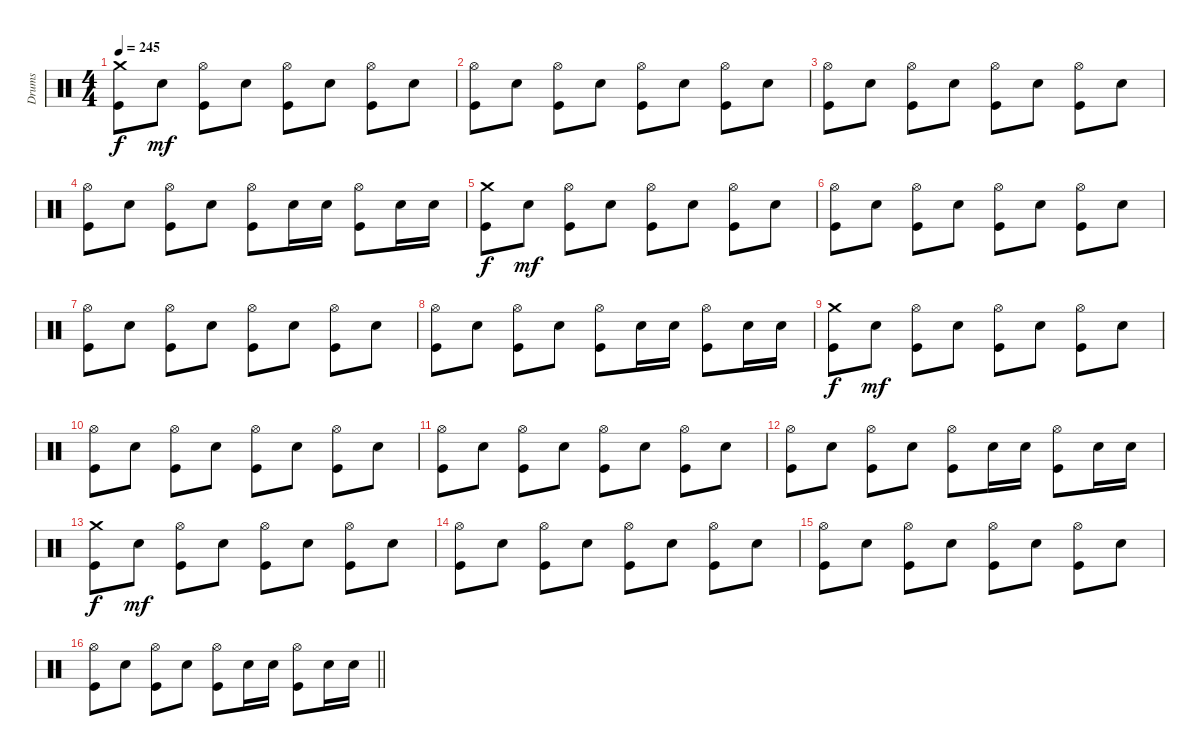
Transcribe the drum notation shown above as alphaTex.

\track ("Drums" "Drums") {instrument percussion}
\staff {score}
\articulation defaults
\ts (4 4)
\tempo 245
\clef neutral
\ks c
("Crash medium (hit)" "Kick (hit)").8{dy f} "Snare (hit) 2".8{dy mf} ("Hi-Hat (open)" "Kick (hit)").8 "Snare (hit) 2".8 ("Hi-Hat (open)" "Kick (hit)").8 "Snare (hit) 2".8 ("Hi-Hat (open)" "Kick (hit)").8 "Snare (hit) 2".8 |
("Hi-Hat (open)" "Kick (hit)").8 "Snare (hit) 2".8 ("Hi-Hat (open)" "Kick (hit)").8 "Snare (hit) 2".8 ("Hi-Hat (open)" "Kick (hit)").8 "Snare (hit) 2".8 ("Hi-Hat (open)" "Kick (hit)").8 "Snare (hit) 2".8 |
("Hi-Hat (open)" "Kick (hit)").8 "Snare (hit) 2".8 ("Hi-Hat (open)" "Kick (hit)").8 "Snare (hit) 2".8 ("Hi-Hat (open)" "Kick (hit)").8 "Snare (hit) 2".8 ("Hi-Hat (open)" "Kick (hit)").8 "Snare (hit) 2".8 |
("Hi-Hat (open)" "Kick (hit)").8 "Snare (hit) 2".8 ("Hi-Hat (open)" "Kick (hit)").8 "Snare (hit) 2".8 ("Hi-Hat (open)" "Kick (hit)").8 "Snare (hit) 2".16 "Snare (hit) 2".16 ("Hi-Hat (open)" "Kick (hit)").8 "Snare (hit) 2".16 "Snare (hit) 2".16 |
("Crash medium (hit)" "Kick (hit)").8{dy f} "Snare (hit) 2".8{dy mf} ("Hi-Hat (open)" "Kick (hit)").8 "Snare (hit) 2".8 ("Hi-Hat (open)" "Kick (hit)").8 "Snare (hit) 2".8 ("Hi-Hat (open)" "Kick (hit)").8 "Snare (hit) 2".8 |
("Hi-Hat (open)" "Kick (hit)").8 "Snare (hit) 2".8 ("Hi-Hat (open)" "Kick (hit)").8 "Snare (hit) 2".8 ("Hi-Hat (open)" "Kick (hit)").8 "Snare (hit) 2".8 ("Hi-Hat (open)" "Kick (hit)").8 "Snare (hit) 2".8 |
("Hi-Hat (open)" "Kick (hit)").8 "Snare (hit) 2".8 ("Hi-Hat (open)" "Kick (hit)").8 "Snare (hit) 2".8 ("Hi-Hat (open)" "Kick (hit)").8 "Snare (hit) 2".8 ("Hi-Hat (open)" "Kick (hit)").8 "Snare (hit) 2".8 |
("Hi-Hat (open)" "Kick (hit)").8 "Snare (hit) 2".8 ("Hi-Hat (open)" "Kick (hit)").8 "Snare (hit) 2".8 ("Hi-Hat (open)" "Kick (hit)").8 "Snare (hit) 2".16 "Snare (hit) 2".16 ("Hi-Hat (open)" "Kick (hit)").8 "Snare (hit) 2".16 "Snare (hit) 2".16 |
("Crash medium (hit)" "Kick (hit)").8{dy f} "Snare (hit) 2".8{dy mf} ("Hi-Hat (open)" "Kick (hit)").8 "Snare (hit) 2".8 ("Hi-Hat (open)" "Kick (hit)").8 "Snare (hit) 2".8 ("Hi-Hat (open)" "Kick (hit)").8 "Snare (hit) 2".8 |
("Hi-Hat (open)" "Kick (hit)").8 "Snare (hit) 2".8 ("Hi-Hat (open)" "Kick (hit)").8 "Snare (hit) 2".8 ("Hi-Hat (open)" "Kick (hit)").8 "Snare (hit) 2".8 ("Hi-Hat (open)" "Kick (hit)").8 "Snare (hit) 2".8 |
("Hi-Hat (open)" "Kick (hit)").8 "Snare (hit) 2".8 ("Hi-Hat (open)" "Kick (hit)").8 "Snare (hit) 2".8 ("Hi-Hat (open)" "Kick (hit)").8 "Snare (hit) 2".8 ("Hi-Hat (open)" "Kick (hit)").8 "Snare (hit) 2".8 |
("Hi-Hat (open)" "Kick (hit)").8 "Snare (hit) 2".8 ("Hi-Hat (open)" "Kick (hit)").8 "Snare (hit) 2".8 ("Hi-Hat (open)" "Kick (hit)").8 "Snare (hit) 2".16 "Snare (hit) 2".16 ("Hi-Hat (open)" "Kick (hit)").8 "Snare (hit) 2".16 "Snare (hit) 2".16 |
("Crash medium (hit)" "Kick (hit)").8{dy f} "Snare (hit) 2".8{dy mf} ("Hi-Hat (open)" "Kick (hit)").8 "Snare (hit) 2".8 ("Hi-Hat (open)" "Kick (hit)").8 "Snare (hit) 2".8 ("Hi-Hat (open)" "Kick (hit)").8 "Snare (hit) 2".8 |
("Hi-Hat (open)" "Kick (hit)").8 "Snare (hit) 2".8 ("Hi-Hat (open)" "Kick (hit)").8 "Snare (hit) 2".8 ("Hi-Hat (open)" "Kick (hit)").8 "Snare (hit) 2".8 ("Hi-Hat (open)" "Kick (hit)").8 "Snare (hit) 2".8 |
("Hi-Hat (open)" "Kick (hit)").8 "Snare (hit) 2".8 ("Hi-Hat (open)" "Kick (hit)").8 "Snare (hit) 2".8 ("Hi-Hat (open)" "Kick (hit)").8 "Snare (hit) 2".8 ("Hi-Hat (open)" "Kick (hit)").8 "Snare (hit) 2".8 |
\barLineRight lightlight
("Hi-Hat (open)" "Kick (hit)").8 "Snare (hit) 2".8 ("Hi-Hat (open)" "Kick (hit)").8 "Snare (hit) 2".8 ("Hi-Hat (open)" "Kick (hit)").8 "Snare (hit) 2".16 "Snare (hit) 2".16 ("Hi-Hat (open)" "Kick (hit)").8 "Snare (hit) 2".16 "Snare (hit) 2".16
